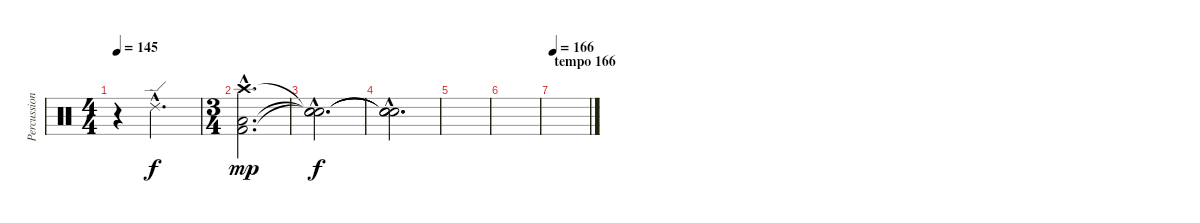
\track ("Percussion" "Percussion") {instrument percussion}
\staff {score}
\articulation defaults
\ts (4 4)
\tempo 145
\clef neutral
\ks c
r.4{dy f} "Ride (edge) 2"{hac}.2{d} |
\ts (3 4)
("Crash high (hit)"{hac} "Low Floor Tom (hit)"{hac} "Kick (hit) 2"{hac}).2{d dy mp} |
("Snare (hit)"{hac t} "Snare (hit)"{hac t} "Snare (hit)"{hac t}).2{d dy f} |
("Snare (hit)"{hac t} "Snare (hit)"{hac t} "Snare (hit)"{hac t}).2{d} |
|
|
\section ("" "tempo 166")
\tempo 166
